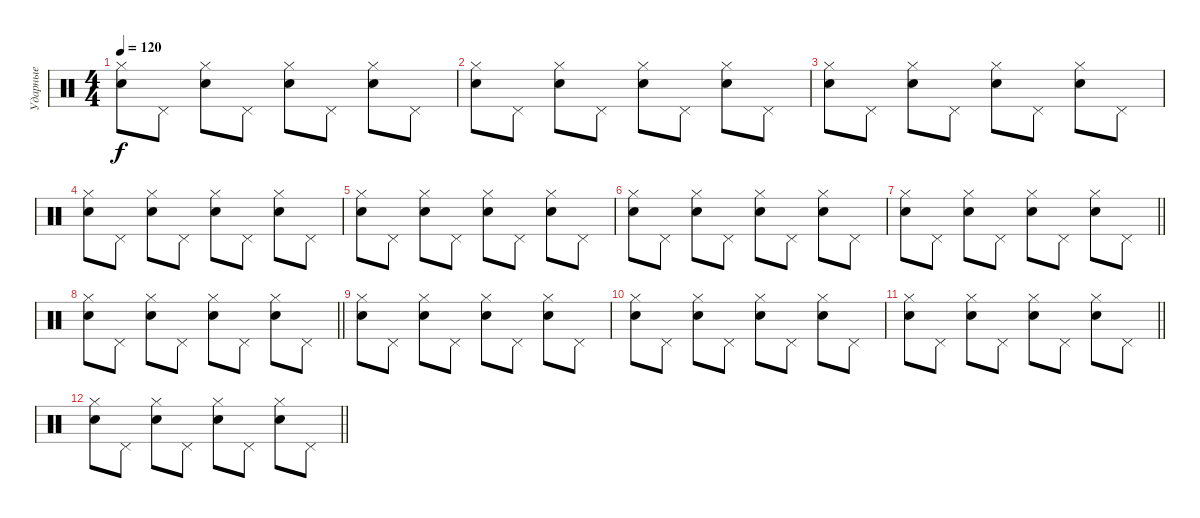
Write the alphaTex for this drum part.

\track ("Ударные" "Ударные") {instrument percussion}
\staff {score}
\articulation defaults
\ts (4 4)
\tempo 120
\clef neutral
\ks c
("Snare (hit) 2" "Hi-Hat (closed)").8{dy f} "Pedal Hi-Hat (hit)".8 ("Snare (hit) 2" "Hi-Hat (closed)").8 "Pedal Hi-Hat (hit)".8 ("Snare (hit) 2" "Hi-Hat (closed)").8 "Pedal Hi-Hat (hit)".8 ("Snare (hit) 2" "Hi-Hat (closed)").8 "Pedal Hi-Hat (hit)".8 |
("Snare (hit) 2" "Hi-Hat (closed)").8 "Pedal Hi-Hat (hit)".8 ("Snare (hit) 2" "Hi-Hat (closed)").8 "Pedal Hi-Hat (hit)".8 ("Snare (hit) 2" "Hi-Hat (closed)").8 "Pedal Hi-Hat (hit)".8 ("Snare (hit) 2" "Hi-Hat (closed)").8 "Pedal Hi-Hat (hit)".8 |
("Snare (hit) 2" "Hi-Hat (closed)").8 "Pedal Hi-Hat (hit)".8 ("Snare (hit) 2" "Hi-Hat (closed)").8 "Pedal Hi-Hat (hit)".8 ("Snare (hit) 2" "Hi-Hat (closed)").8 "Pedal Hi-Hat (hit)".8 ("Snare (hit) 2" "Hi-Hat (closed)").8 "Pedal Hi-Hat (hit)".8 |
("Snare (hit) 2" "Hi-Hat (closed)").8 "Pedal Hi-Hat (hit)".8 ("Snare (hit) 2" "Hi-Hat (closed)").8 "Pedal Hi-Hat (hit)".8 ("Snare (hit) 2" "Hi-Hat (closed)").8 "Pedal Hi-Hat (hit)".8 ("Snare (hit) 2" "Hi-Hat (closed)").8 "Pedal Hi-Hat (hit)".8 |
("Snare (hit) 2" "Hi-Hat (closed)").8 "Pedal Hi-Hat (hit)".8 ("Snare (hit) 2" "Hi-Hat (closed)").8 "Pedal Hi-Hat (hit)".8 ("Snare (hit) 2" "Hi-Hat (closed)").8 "Pedal Hi-Hat (hit)".8 ("Snare (hit) 2" "Hi-Hat (closed)").8 "Pedal Hi-Hat (hit)".8 |
("Snare (hit) 2" "Hi-Hat (closed)").8 "Pedal Hi-Hat (hit)".8 ("Snare (hit) 2" "Hi-Hat (closed)").8 "Pedal Hi-Hat (hit)".8 ("Snare (hit) 2" "Hi-Hat (closed)").8 "Pedal Hi-Hat (hit)".8 ("Snare (hit) 2" "Hi-Hat (closed)").8 "Pedal Hi-Hat (hit)".8 |
\barLineRight lightlight
("Snare (hit) 2" "Hi-Hat (closed)").8 "Pedal Hi-Hat (hit)".8 ("Snare (hit) 2" "Hi-Hat (closed)").8 "Pedal Hi-Hat (hit)".8 ("Snare (hit) 2" "Hi-Hat (closed)").8 "Pedal Hi-Hat (hit)".8 ("Snare (hit) 2" "Hi-Hat (closed)").8 "Pedal Hi-Hat (hit)".8 |
\barLineRight lightlight
("Snare (hit) 2" "Hi-Hat (closed)").8 "Pedal Hi-Hat (hit)".8 ("Snare (hit) 2" "Hi-Hat (closed)").8 "Pedal Hi-Hat (hit)".8 ("Snare (hit) 2" "Hi-Hat (closed)").8 "Pedal Hi-Hat (hit)".8 ("Snare (hit) 2" "Hi-Hat (closed)").8 "Pedal Hi-Hat (hit)".8 |
("Snare (hit) 2" "Hi-Hat (closed)").8 "Pedal Hi-Hat (hit)".8 ("Snare (hit) 2" "Hi-Hat (closed)").8 "Pedal Hi-Hat (hit)".8 ("Snare (hit) 2" "Hi-Hat (closed)").8 "Pedal Hi-Hat (hit)".8 ("Snare (hit) 2" "Hi-Hat (closed)").8 "Pedal Hi-Hat (hit)".8 |
("Snare (hit) 2" "Hi-Hat (closed)").8 "Pedal Hi-Hat (hit)".8 ("Snare (hit) 2" "Hi-Hat (closed)").8 "Pedal Hi-Hat (hit)".8 ("Snare (hit) 2" "Hi-Hat (closed)").8 "Pedal Hi-Hat (hit)".8 ("Snare (hit) 2" "Hi-Hat (closed)").8 "Pedal Hi-Hat (hit)".8 |
\barLineRight lightlight
("Snare (hit) 2" "Hi-Hat (closed)").8 "Pedal Hi-Hat (hit)".8 ("Snare (hit) 2" "Hi-Hat (closed)").8 "Pedal Hi-Hat (hit)".8 ("Snare (hit) 2" "Hi-Hat (closed)").8 "Pedal Hi-Hat (hit)".8 ("Snare (hit) 2" "Hi-Hat (closed)").8 "Pedal Hi-Hat (hit)".8 |
\barLineRight lightlight
("Snare (hit) 2" "Hi-Hat (closed)").8 "Pedal Hi-Hat (hit)".8 ("Snare (hit) 2" "Hi-Hat (closed)").8 "Pedal Hi-Hat (hit)".8 ("Snare (hit) 2" "Hi-Hat (closed)").8 "Pedal Hi-Hat (hit)".8 ("Snare (hit) 2" "Hi-Hat (closed)").8 "Pedal Hi-Hat (hit)".8
